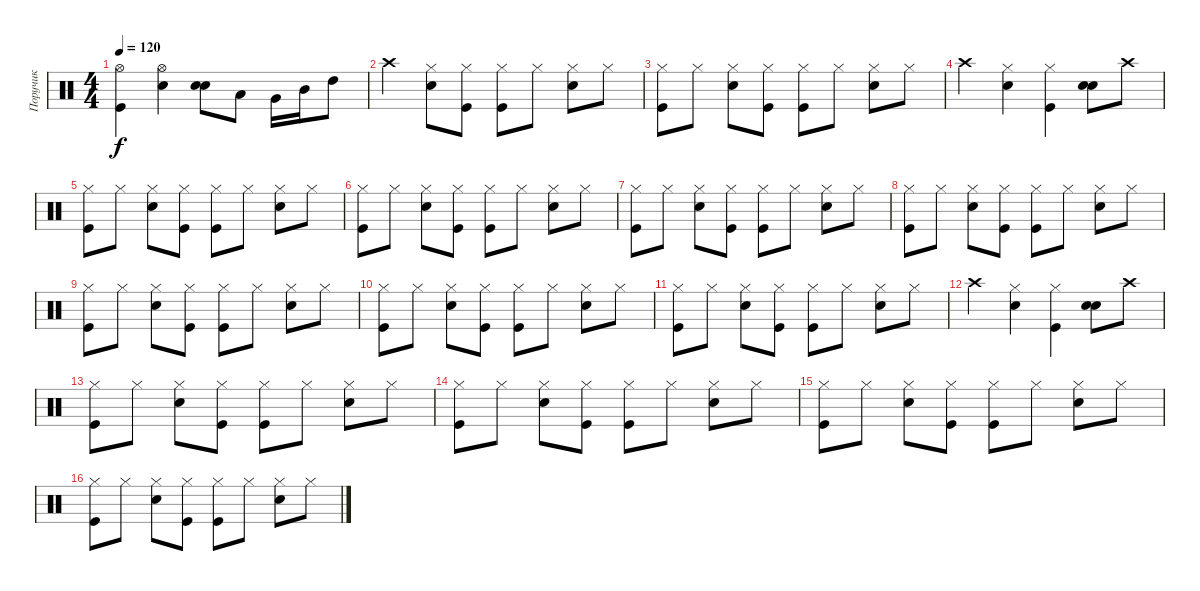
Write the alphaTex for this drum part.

\track ("Поручик" "Поручик") {instrument percussion}
\staff {score}
\articulation defaults
\ts (4 4)
\tempo 120
\clef neutral
\ks c
("Hi-Hat (open)" "Kick (hit)").4{dy f} ("Hi-Hat (open)" "Snare (hit) 2").4 ("Electric Snare (hit)" "Electric Snare (hit)").8 "Low Tom (hit)".8 "Very Low Tom (hit)".16 "Mid Tom (hit)".16 "High Tom (hit)".8 |
"Crash high (hit)".4 ("Hi-Hat (closed)" "Snare (hit) 2").8 ("Hi-Hat (closed)" "Kick (hit)").8 ("Hi-Hat (closed)" "Kick (hit)").8 "Hi-Hat (closed)".8 ("Hi-Hat (closed)" "Snare (hit) 2").8 "Hi-Hat (closed)".8 |
("Hi-Hat (closed)" "Kick (hit)").8 "Hi-Hat (closed)".8 ("Hi-Hat (closed)" "Snare (hit) 2").8 ("Hi-Hat (closed)" "Kick (hit)").8 ("Hi-Hat (closed)" "Kick (hit)").8 "Hi-Hat (closed)".8 ("Hi-Hat (closed)" "Snare (hit) 2").8 "Hi-Hat (closed)".8 |
"Crash high (hit)".4 ("Hi-Hat (closed)" "Snare (hit) 2").4 ("Hi-Hat (closed)" "Kick (hit)").4 ("Electric Snare (hit)" "Electric Snare (hit)").8 "Crash high (hit)".8 |
("Hi-Hat (closed)" "Kick (hit)").8 "Hi-Hat (closed)".8 ("Hi-Hat (closed)" "Snare (hit) 2").8 ("Hi-Hat (closed)" "Kick (hit)").8 ("Hi-Hat (closed)" "Kick (hit)").8 "Hi-Hat (closed)".8 ("Hi-Hat (closed)" "Snare (hit) 2").8 "Hi-Hat (closed)".8 |
("Hi-Hat (closed)" "Kick (hit)").8 "Hi-Hat (closed)".8 ("Hi-Hat (closed)" "Snare (hit) 2").8 ("Hi-Hat (closed)" "Kick (hit)").8 ("Hi-Hat (closed)" "Kick (hit)").8 "Hi-Hat (closed)".8 ("Hi-Hat (closed)" "Snare (hit) 2").8 "Hi-Hat (closed)".8 |
("Hi-Hat (closed)" "Kick (hit)").8 "Hi-Hat (closed)".8 ("Hi-Hat (closed)" "Snare (hit) 2").8 ("Hi-Hat (closed)" "Kick (hit)").8 ("Hi-Hat (closed)" "Kick (hit)").8 "Hi-Hat (closed)".8 ("Hi-Hat (closed)" "Snare (hit) 2").8 "Hi-Hat (closed)".8 |
("Hi-Hat (closed)" "Kick (hit)").8 "Hi-Hat (closed)".8 ("Hi-Hat (closed)" "Snare (hit) 2").8 ("Hi-Hat (closed)" "Kick (hit)").8 ("Hi-Hat (closed)" "Kick (hit)").8 "Hi-Hat (closed)".8 ("Hi-Hat (closed)" "Snare (hit) 2").8 "Hi-Hat (closed)".8 |
("Hi-Hat (closed)" "Kick (hit)").8 "Hi-Hat (closed)".8 ("Hi-Hat (closed)" "Snare (hit) 2").8 ("Hi-Hat (closed)" "Kick (hit)").8 ("Hi-Hat (closed)" "Kick (hit)").8 "Hi-Hat (closed)".8 ("Hi-Hat (closed)" "Snare (hit) 2").8 "Hi-Hat (closed)".8 |
("Hi-Hat (closed)" "Kick (hit)").8 "Hi-Hat (closed)".8 ("Hi-Hat (closed)" "Snare (hit) 2").8 ("Hi-Hat (closed)" "Kick (hit)").8 ("Hi-Hat (closed)" "Kick (hit)").8 "Hi-Hat (closed)".8 ("Hi-Hat (closed)" "Snare (hit) 2").8 "Hi-Hat (closed)".8 |
("Hi-Hat (closed)" "Kick (hit)").8 "Hi-Hat (closed)".8 ("Hi-Hat (closed)" "Snare (hit) 2").8 ("Hi-Hat (closed)" "Kick (hit)").8 ("Hi-Hat (closed)" "Kick (hit)").8 "Hi-Hat (closed)".8 ("Hi-Hat (closed)" "Snare (hit) 2").8 "Hi-Hat (closed)".8 |
"Crash high (hit)".4 ("Hi-Hat (closed)" "Snare (hit) 2").4 ("Hi-Hat (closed)" "Kick (hit)").4 ("Electric Snare (hit)" "Electric Snare (hit)").8 "Crash high (hit)".8 |
("Hi-Hat (closed)" "Kick (hit)").8 "Hi-Hat (closed)".8 ("Hi-Hat (closed)" "Snare (hit) 2").8 ("Hi-Hat (closed)" "Kick (hit)").8 ("Hi-Hat (closed)" "Kick (hit)").8 "Hi-Hat (closed)".8 ("Hi-Hat (closed)" "Snare (hit) 2").8 "Hi-Hat (closed)".8 |
("Hi-Hat (closed)" "Kick (hit)").8 "Hi-Hat (closed)".8 ("Hi-Hat (closed)" "Snare (hit) 2").8 ("Hi-Hat (closed)" "Kick (hit)").8 ("Hi-Hat (closed)" "Kick (hit)").8 "Hi-Hat (closed)".8 ("Hi-Hat (closed)" "Snare (hit) 2").8 "Hi-Hat (closed)".8 |
("Hi-Hat (closed)" "Kick (hit)").8 "Hi-Hat (closed)".8 ("Hi-Hat (closed)" "Snare (hit) 2").8 ("Hi-Hat (closed)" "Kick (hit)").8 ("Hi-Hat (closed)" "Kick (hit)").8 "Hi-Hat (closed)".8 ("Hi-Hat (closed)" "Snare (hit) 2").8 "Hi-Hat (closed)".8 |
("Hi-Hat (closed)" "Kick (hit)").8 "Hi-Hat (closed)".8 ("Hi-Hat (closed)" "Snare (hit) 2").8 ("Hi-Hat (closed)" "Kick (hit)").8 ("Hi-Hat (closed)" "Kick (hit)").8 "Hi-Hat (closed)".8 ("Hi-Hat (closed)" "Snare (hit) 2").8 "Hi-Hat (closed)".8
